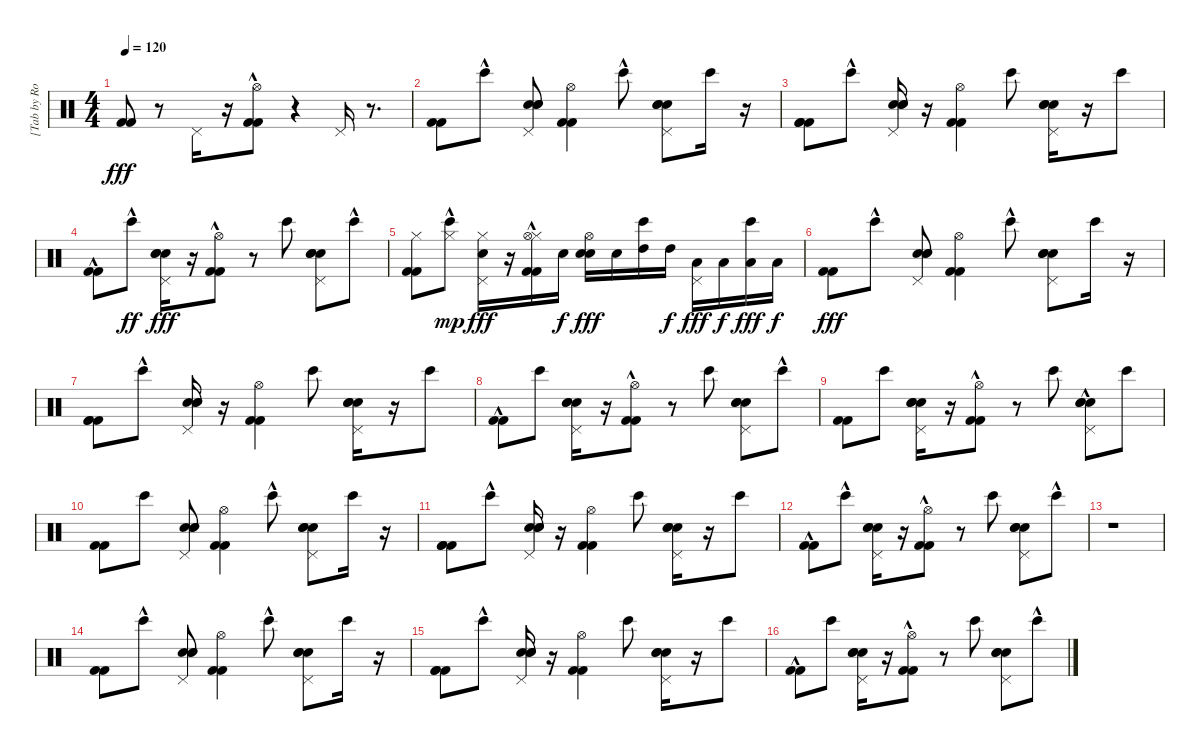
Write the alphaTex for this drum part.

\track ("[Tab by Rodrigo Takahashi]" "[Tab by Ro") {instrument percussion}
\staff {score}
\articulation defaults
\ts (4 4)
\tempo 120
\clef neutral
\ks c
("Kick (hit) 2" "Kick (hit) 2").8{dy fff} r.8 "Pedal Hi-Hat (hit)".16 r.16 ("Kick (hit) 2"{hac} "Kick (hit) 2"{hac} "Hi-Hat (open)").8 r.4 "Pedal Hi-Hat (hit)".16 r.8{d} |
("Kick (hit) 2" "Kick (hit) 2").8 "Bongo High (hit)"{hac}.8 ("Hand Clap (hit)" "Pedal Hi-Hat (hit)" "Electric Snare (hit)" "Snare (hit) 2").8 ("Kick (hit) 2" "Kick (hit) 2" "Hi-Hat (open)").4 "Bongo High (hit)"{hac}.8 ("Pedal Hi-Hat (hit)" "Electric Snare (hit)" "Snare (hit) 2" "Hand Clap (hit)").8 "Bongo High (hit)".16 r.16 |
("Kick (hit) 2" "Kick (hit) 2" "Kick (hit) 2").8 "Bongo High (hit)"{hac}.8 ("Pedal Hi-Hat (hit)" "Electric Snare (hit)" "Snare (hit) 2" "Hand Clap (hit)").16 r.16 ("Kick (hit) 2" "Kick (hit) 2" "Hi-Hat (open)").4 "Bongo High (hit)".8 ("Pedal Hi-Hat (hit)" "Electric Snare (hit)" "Snare (hit) 2" "Hand Clap (hit)").16 r.16 "Bongo High (hit)".8 |
("Kick (hit) 2"{hac} "Kick (hit) 2"{hac}).8 "Bongo High (hit)"{hac}.8{dy ff} ("Pedal Hi-Hat (hit)" "Electric Snare (hit)" "Snare (hit) 2" "Hand Clap (hit)").16{dy fff} r.16 ("Kick (hit) 2"{hac} "Kick (hit) 2"{hac} "Hi-Hat (open)").8 r.8 "Bongo High (hit)".8 ("Snare (hit) 2" "Pedal Hi-Hat (hit)" "Electric Snare (hit)" "Hand Clap (hit)").8 "Bongo High (hit)"{hac}.8 |
("Hi-Hat (closed)" "Kick (hit) 2" "Kick (hit) 2").8 ("Bongo High (hit)"{hac} "Hi-Hat (closed)").8{dy mp} ("Hi-Hat (closed)" "Snare (hit) 2" "Pedal Hi-Hat (hit)").16{dy fff} r.16 ("Hi-Hat (closed)" "Kick (hit) 2"{hac} "Kick (hit) 2"{hac} "Hi-Hat (open)").16 "Snare (hit) 2".16{dy f} ("Snare (hit) 2" "Hi-Hat (open)" "Snare (hit) 2").16{dy fff} "Snare (hit) 2".16 ("High Tom (hit)" "Bongo High (hit)").16 "High Tom (hit)".16{dy f} ("Low Tom (hit)" "Pedal Hi-Hat (hit)").16{dy fff} "Low Tom (hit)".16{dy f} ("Low Floor Tom (hit)" "Bongo High (hit)").16{dy fff} "Low Floor Tom (hit)".16{dy f} |
("Kick (hit) 2" "Kick (hit) 2").8{dy fff} "Bongo High (hit)"{hac}.8 ("Hand Clap (hit)" "Pedal Hi-Hat (hit)" "Electric Snare (hit)" "Snare (hit) 2").8 ("Kick (hit) 2" "Kick (hit) 2" "Hi-Hat (open)").4 "Bongo High (hit)"{hac}.8 ("Pedal Hi-Hat (hit)" "Electric Snare (hit)" "Snare (hit) 2" "Hand Clap (hit)").8 "Bongo High (hit)".16 r.16 |
("Kick (hit) 2" "Kick (hit) 2" "Kick (hit) 2").8 "Bongo High (hit)"{hac}.8 ("Pedal Hi-Hat (hit)" "Electric Snare (hit)" "Snare (hit) 2" "Hand Clap (hit)").16 r.16 ("Kick (hit) 2" "Kick (hit) 2" "Hi-Hat (open)").4 "Bongo High (hit)".8 ("Pedal Hi-Hat (hit)" "Electric Snare (hit)" "Snare (hit) 2" "Hand Clap (hit)").16 r.16 "Bongo High (hit)".8 |
("Kick (hit) 2"{hac} "Kick (hit) 2"{hac}).8 "Bongo High (hit)".8 ("Pedal Hi-Hat (hit)" "Electric Snare (hit)" "Snare (hit) 2" "Hand Clap (hit)").16 r.16 ("Kick (hit) 2"{hac} "Kick (hit) 2"{hac} "Hi-Hat (open)").8 r.8 "Bongo High (hit)".8 ("Snare (hit) 2" "Pedal Hi-Hat (hit)" "Electric Snare (hit)" "Hand Clap (hit)").8 "Bongo High (hit)"{hac}.8 |
("Kick (hit) 2" "Kick (hit) 2").8 "Bongo High (hit)".8 ("Pedal Hi-Hat (hit)" "Electric Snare (hit)" "Snare (hit) 2" "Hand Clap (hit)").16 r.16 ("Kick (hit) 2"{hac} "Kick (hit) 2"{hac} "Hi-Hat (open)").8 r.8 "Bongo High (hit)".8 ("Snare (hit) 2" "Pedal Hi-Hat (hit)" "Electric Snare (hit)"{hac} "Hand Clap (hit)").8 "Bongo High (hit)".8 |
("Kick (hit) 2" "Kick (hit) 2").8 "Bongo High (hit)".8 ("Hand Clap (hit)" "Pedal Hi-Hat (hit)" "Electric Snare (hit)" "Snare (hit) 2").8 ("Kick (hit) 2" "Kick (hit) 2" "Hi-Hat (open)").4 "Bongo High (hit)"{hac}.8 ("Pedal Hi-Hat (hit)" "Electric Snare (hit)" "Snare (hit) 2" "Hand Clap (hit)").8 "Bongo High (hit)".16 r.16 |
("Kick (hit) 2" "Kick (hit) 2" "Kick (hit) 2").8 "Bongo High (hit)"{hac}.8 ("Pedal Hi-Hat (hit)" "Electric Snare (hit)" "Snare (hit) 2" "Hand Clap (hit)").16 r.16 ("Kick (hit) 2" "Kick (hit) 2" "Hi-Hat (open)").4 "Bongo High (hit)".8 ("Pedal Hi-Hat (hit)" "Electric Snare (hit)" "Snare (hit) 2" "Hand Clap (hit)").16 r.16 "Bongo High (hit)".8 |
("Kick (hit) 2"{hac} "Kick (hit) 2"{hac}).8 "Bongo High (hit)"{hac}.8 ("Pedal Hi-Hat (hit)" "Electric Snare (hit)" "Snare (hit) 2" "Hand Clap (hit)").16 r.16 ("Kick (hit) 2"{hac} "Kick (hit) 2"{hac} "Hi-Hat (open)").8 r.8 "Bongo High (hit)".8 ("Snare (hit) 2" "Pedal Hi-Hat (hit)" "Electric Snare (hit)" "Hand Clap (hit)").8 "Bongo High (hit)"{hac}.8 |
r.1 |
("Kick (hit) 2" "Kick (hit) 2").8 "Bongo High (hit)"{hac}.8 ("Hand Clap (hit)" "Pedal Hi-Hat (hit)" "Electric Snare (hit)" "Snare (hit) 2").8 ("Kick (hit) 2" "Kick (hit) 2" "Hi-Hat (open)").4 "Bongo High (hit)"{hac}.8 ("Pedal Hi-Hat (hit)" "Electric Snare (hit)" "Snare (hit) 2" "Hand Clap (hit)").8 "Bongo High (hit)".16 r.16 |
("Kick (hit) 2" "Kick (hit) 2" "Kick (hit) 2").8 "Bongo High (hit)"{hac}.8 ("Pedal Hi-Hat (hit)" "Electric Snare (hit)" "Snare (hit) 2" "Hand Clap (hit)").16 r.16 ("Kick (hit) 2" "Kick (hit) 2" "Hi-Hat (open)").4 "Bongo High (hit)".8 ("Pedal Hi-Hat (hit)" "Electric Snare (hit)" "Snare (hit) 2" "Hand Clap (hit)").16 r.16 "Bongo High (hit)".8 |
("Kick (hit) 2"{hac} "Kick (hit) 2"{hac}).8 "Bongo High (hit)".8 ("Pedal Hi-Hat (hit)" "Electric Snare (hit)" "Snare (hit) 2" "Hand Clap (hit)").16 r.16 ("Kick (hit) 2"{hac} "Kick (hit) 2"{hac} "Hi-Hat (open)").8 r.8 "Bongo High (hit)".8 ("Snare (hit) 2" "Pedal Hi-Hat (hit)" "Electric Snare (hit)" "Hand Clap (hit)").8 "Bongo High (hit)"{hac}.8
